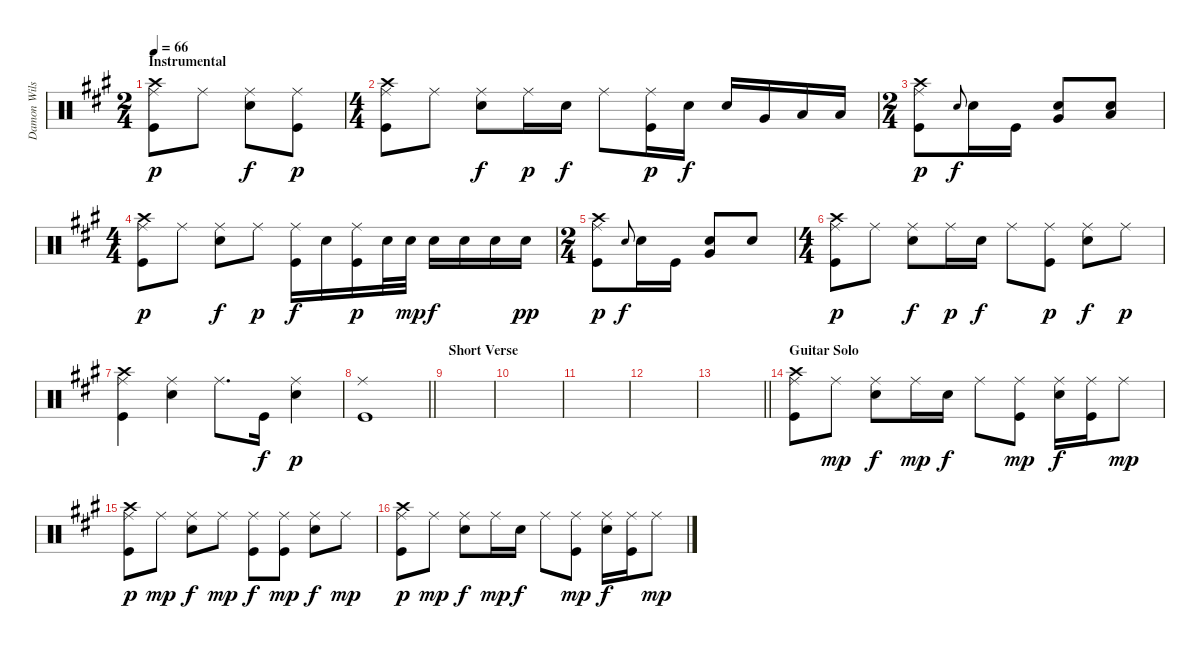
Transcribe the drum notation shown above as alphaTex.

\track ("Damon Wilson" "Damon Wils") {instrument percussion}
\staff {score}
\articulation defaults
\ts (2 4)
\section ("" "Instrumental")
\tempo 66
\clef neutral
\ks f#minor
("Ride (middle)" "Crash high (hit)" "Kick (hit)").8{dy p} "Ride (middle)".8 ("Ride (middle)" "Electric Snare (hit)").8{dy f} ("Ride (middle)" "Kick (hit)").8{dy p} |
\ts (4 4)
("Ride (middle)" "Crash high (hit)" "Kick (hit)").8 "Ride (middle)".8 ("Ride (middle)" "Electric Snare (hit)").8{dy f} "Ride (middle)".16{dy p} "Electric Snare (hit)".16{dy f} "Ride (middle)".8 ("Ride (middle)" "Kick (hit)").16{dy p} "Electric Snare (hit)".16{dy f} "Electric Snare (hit)".16 "Very Low Tom (hit)".16 "Low Floor Tom (hit)".16 "Low Floor Tom (hit)".16 |
\ts (2 4)
("Ride (middle)" "Crash high (hit)" "Kick (hit)").8{dy p} "Electric Snare (hit)".8{gr onbeat dy f} "Electric Snare (hit)".16 "Kick (hit)".16 ("Very Low Tom (hit)" "Electric Snare (hit)").8 ("Low Floor Tom (hit)" "Electric Snare (hit)").8 |
\ts (4 4)
("Ride (middle)" "Crash high (hit)" "Kick (hit)").8{dy p} "Ride (middle)".8 ("Ride (middle)" "Electric Snare (hit)").8{dy f} "Ride (middle)".8{dy p} ("Ride (middle)" "Kick (hit)").16{dy f} "Electric Snare (hit)".16 ("Ride (middle)" "Kick (hit)").16{dy p} "Electric Snare (hit)".32 "Electric Snare (hit)".32{dy mp} "Electric Snare (hit)".16{dy f} "Electric Snare (hit)".16 "Electric Snare (hit)".16 "Electric Snare (hit)".16{dy pp} |
\ts (2 4)
("Ride (middle)" "Crash high (hit)" "Kick (hit)").8{dy p} "Electric Snare (hit)".8{gr onbeat dy f} "Electric Snare (hit)".16 "Kick (hit)".16 ("Very Low Tom (hit)" "Electric Snare (hit)").8 "Electric Snare (hit)".8 |
\ts (4 4)
("Ride (middle)" "Crash high (hit)" "Kick (hit)").8{dy p} "Ride (middle)".8 ("Ride (middle)" "Electric Snare (hit)").8{dy f} "Ride (middle)".16{dy p} "Electric Snare (hit)".16{dy f} "Ride (middle)".8 ("Ride (middle)" "Kick (hit)").8{dy p} ("Ride (middle)" "Electric Snare (hit)").8{dy f} "Ride (middle)".8{dy p} |
("Ride (middle)" "Crash high (hit)" "Kick (hit)").4 ("Ride (middle)" "Electric Snare (hit)").4 "Ride (middle)".8{d} "Kick (hit)".16{dy f} ("Ride (middle)" "Electric Snare (hit)").4{dy p} |
\barLineRight lightlight
("Ride (middle)" "Kick (hit)").1 |
\section ("" "Short Verse")
|
|
|
|
\barLineRight lightlight
|
\section ("" "Guitar Solo")
("Ride (middle)" "Crash high (hit)" "Kick (hit)").8 "Ride (middle)".8{dy mp} ("Ride (middle)" "Electric Snare (hit)").8{dy f} "Ride (middle)".16{dy mp} "Electric Snare (hit)".16{dy f} "Ride (middle)".8 ("Ride (middle)" "Kick (hit)").8{dy mp} ("Ride (middle)" "Electric Snare (hit)").16{dy f} ("Ride (middle)" "Kick (hit)").16 "Ride (middle)".8{dy mp} |
("Ride (middle)" "Crash high (hit)" "Kick (hit)").8{dy p} "Ride (middle)".8{dy mp} ("Ride (middle)" "Electric Snare (hit)").8{dy f} "Ride (middle)".8{dy mp} ("Ride (middle)" "Kick (hit)").8{dy f} ("Ride (middle)" "Kick (hit)").8{dy mp} ("Ride (middle)" "Electric Snare (hit)").8{dy f} "Ride (middle)".8{dy mp} |
("Ride (middle)" "Crash high (hit)" "Kick (hit)").8{dy p} "Ride (middle)".8{dy mp} ("Ride (middle)" "Electric Snare (hit)").8{dy f} "Ride (middle)".16{dy mp} "Electric Snare (hit)".16{dy f} "Ride (middle)".8 ("Ride (middle)" "Kick (hit)").8{dy mp} ("Ride (middle)" "Electric Snare (hit)").16{dy f} ("Ride (middle)" "Kick (hit)").16 "Ride (middle)".8{dy mp}
